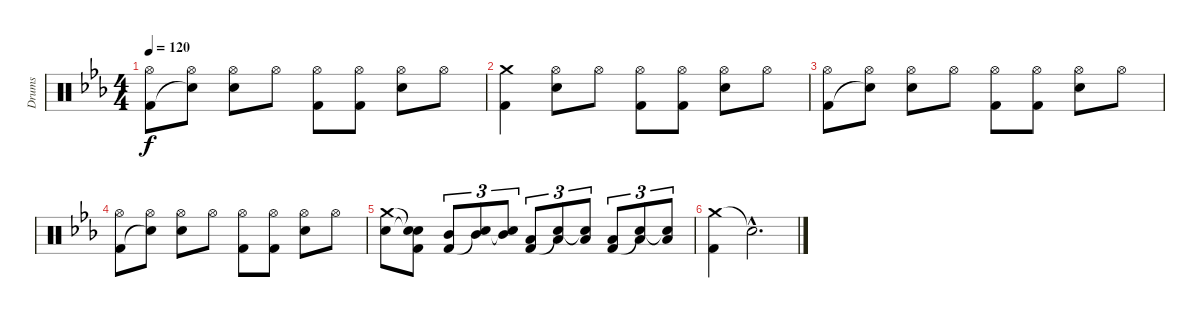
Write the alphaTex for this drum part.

\track ("Drums" "Drums") {instrument percussion}
\staff {score}
\articulation defaults
\ts (4 4)
\tempo 120
\clef neutral
\ks eb
("Hi-Hat (open)" "Kick (hit) 2").8{dy f} ("Hi-Hat (open)" "Snare (hit)"{t}).8 ("Hi-Hat (open)" "Electric Snare (hit)").8 "Hi-Hat (open)".8 ("Hi-Hat (open)" "Kick (hit) 2").8 ("Hi-Hat (open)" "Kick (hit) 2").8 ("Hi-Hat (open)" "Electric Snare (hit)").8 "Hi-Hat (open)".8 |
("Crash medium (hit)" "Kick (hit) 2").4 ("Hi-Hat (open)" "Electric Snare (hit)").8 "Hi-Hat (open)".8 ("Hi-Hat (open)" "Kick (hit) 2").8 ("Hi-Hat (open)" "Kick (hit) 2").8 ("Hi-Hat (open)" "Electric Snare (hit)").8 "Hi-Hat (open)".8 |
("Hi-Hat (open)" "Kick (hit) 2").8 ("Hi-Hat (open)" "Snare (hit)"{t}).8 ("Hi-Hat (open)" "Electric Snare (hit)").8 "Hi-Hat (open)".8 ("Hi-Hat (open)" "Kick (hit) 2").8 ("Hi-Hat (open)" "Kick (hit) 2").8 ("Hi-Hat (open)" "Electric Snare (hit)").8 "Hi-Hat (open)".8 |
("Hi-Hat (open)" "Kick (hit) 2").8 ("Hi-Hat (open)" "Snare (hit)"{t}).8 ("Hi-Hat (open)" "Electric Snare (hit)").8 "Hi-Hat (open)".8 ("Hi-Hat (open)" "Kick (hit) 2").8 ("Hi-Hat (open)" "Kick (hit) 2").8 ("Hi-Hat (open)" "Electric Snare (hit)").8 "Hi-Hat (open)".8 |
("Crash medium (hit)" "Electric Snare (hit)").8 ("Snare (hit)"{t} "Snare (hit)"{t} "Kick (hit) 2").8 ("Mid Tom (hit)" "Kick (hit) 2").8{tu (3 2)} ("Mid Tom (hit)" "Snare (hit)"{t}).8{tu (3 2)} ("Mid Tom (hit)" "Snare (hit)"{t}).8{tu (3 2)} ("Low Tom (hit)" "Kick (hit) 2").8{tu (3 2)} ("Low Tom (hit)" "Snare (hit)"{t}).8{tu (3 2)} ("Low Tom (hit)" "Snare (hit)"{t}).8{tu (3 2)} ("Low Floor Tom (hit)" "Kick (hit) 2").8{tu (3 2)} ("Low Floor Tom (hit)" "Snare (hit)"{t}).8{tu (3 2)} ("Low Floor Tom (hit)" "Snare (hit)"{t}).8{tu (3 2)} |
("Crash medium (hit)" "Kick (hit) 2").4 "Snare (hit)"{hac t}.2{d}
